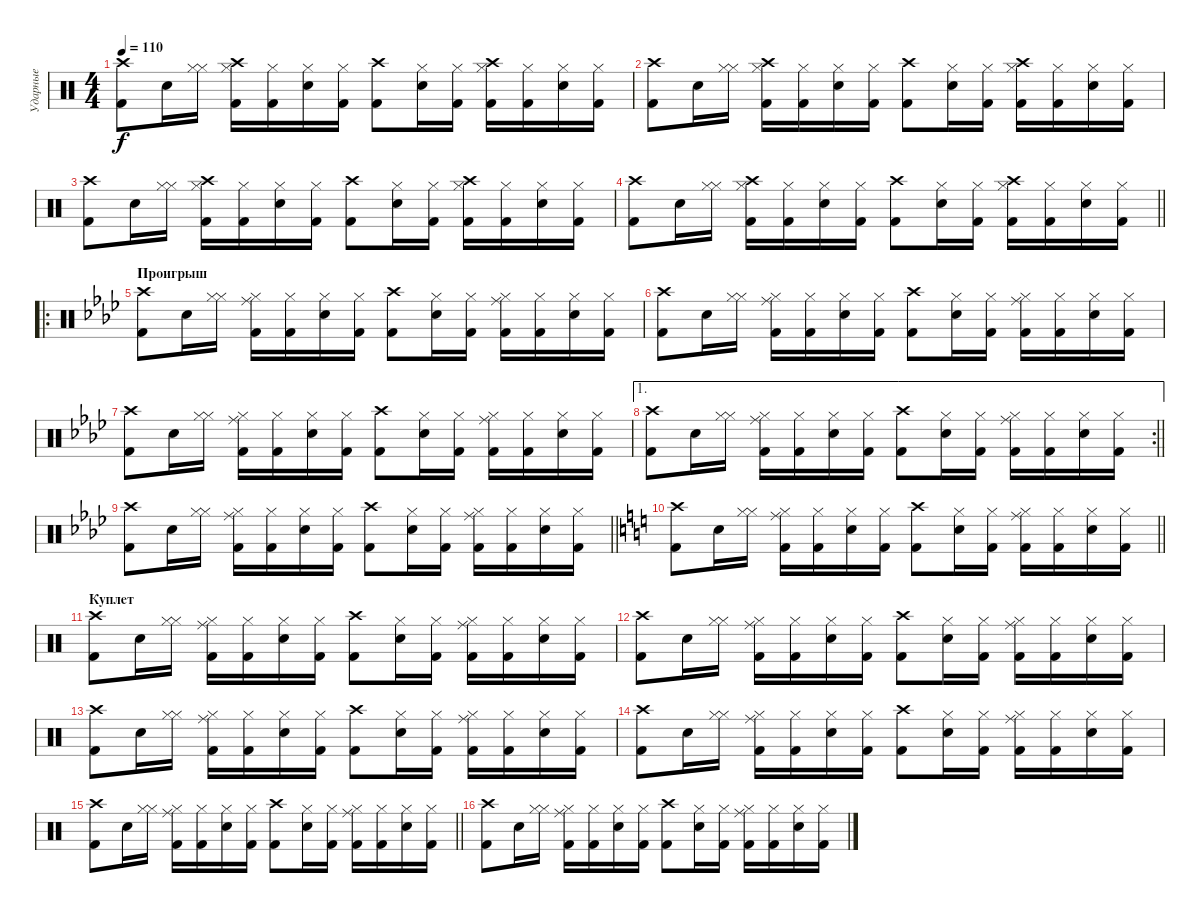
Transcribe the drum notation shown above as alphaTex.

\track ("Ударные" "Ударные") {instrument percussion}
\staff {score}
\articulation defaults
\ts (4 4)
\tempo 110
\clef neutral
\ks c
("Crash high (hit)" "Kick (hit) 2").8{dy f} "Snare (hit) 2".16 ("Hi-Hat (closed)" "Hi-Hat (closed)").16 ("Crash high (hit)" "Hi-Hat (closed)" "Kick (hit) 2").16 ("Hi-Hat (closed)" "Kick (hit) 2").16 ("Hi-Hat (closed)" "Snare (hit) 2").16 ("Hi-Hat (closed)" "Kick (hit) 2").16 ("Crash high (hit)" "Kick (hit) 2").8 ("Hi-Hat (closed)" "Snare (hit) 2").16 ("Hi-Hat (closed)" "Kick (hit) 2").16 ("Crash high (hit)" "Hi-Hat (closed)" "Kick (hit) 2").16 ("Hi-Hat (closed)" "Kick (hit) 2").16 ("Hi-Hat (closed)" "Snare (hit) 2").16 ("Hi-Hat (closed)" "Kick (hit) 2").16 |
("Crash high (hit)" "Kick (hit) 2").8 "Snare (hit) 2".16 ("Hi-Hat (closed)" "Hi-Hat (closed)").16 ("Crash high (hit)" "Hi-Hat (closed)" "Kick (hit) 2").16 ("Hi-Hat (closed)" "Kick (hit) 2").16 ("Hi-Hat (closed)" "Snare (hit) 2").16 ("Hi-Hat (closed)" "Kick (hit) 2").16 ("Crash high (hit)" "Kick (hit) 2").8 ("Hi-Hat (closed)" "Snare (hit) 2").16 ("Hi-Hat (closed)" "Kick (hit) 2").16 ("Crash high (hit)" "Hi-Hat (closed)" "Kick (hit) 2").16 ("Hi-Hat (closed)" "Kick (hit) 2").16 ("Hi-Hat (closed)" "Snare (hit) 2").16 ("Hi-Hat (closed)" "Kick (hit) 2").16 |
("Crash high (hit)" "Kick (hit) 2").8 "Snare (hit) 2".16 ("Hi-Hat (closed)" "Hi-Hat (closed)").16 ("Crash high (hit)" "Hi-Hat (closed)" "Kick (hit) 2").16 ("Hi-Hat (closed)" "Kick (hit) 2").16 ("Hi-Hat (closed)" "Snare (hit) 2").16 ("Hi-Hat (closed)" "Kick (hit) 2").16 ("Crash high (hit)" "Kick (hit) 2").8 ("Hi-Hat (closed)" "Snare (hit) 2").16 ("Hi-Hat (closed)" "Kick (hit) 2").16 ("Crash high (hit)" "Hi-Hat (closed)" "Kick (hit) 2").16 ("Hi-Hat (closed)" "Kick (hit) 2").16 ("Hi-Hat (closed)" "Snare (hit) 2").16 ("Hi-Hat (closed)" "Kick (hit) 2").16 |
\barLineRight lightlight
("Crash high (hit)" "Kick (hit) 2").8 "Snare (hit) 2".16 ("Hi-Hat (closed)" "Hi-Hat (closed)").16 ("Crash high (hit)" "Hi-Hat (closed)" "Kick (hit) 2").16 ("Hi-Hat (closed)" "Kick (hit) 2").16 ("Hi-Hat (closed)" "Snare (hit) 2").16 ("Hi-Hat (closed)" "Kick (hit) 2").16 ("Crash high (hit)" "Kick (hit) 2").8 ("Hi-Hat (closed)" "Snare (hit) 2").16 ("Hi-Hat (closed)" "Kick (hit) 2").16 ("Crash high (hit)" "Hi-Hat (closed)" "Kick (hit) 2").16 ("Hi-Hat (closed)" "Kick (hit) 2").16 ("Hi-Hat (closed)" "Snare (hit) 2").16 ("Hi-Hat (closed)" "Kick (hit) 2").16 |
\ro
\section ("" "Проигрыш")
\ks fminor
("Crash high (hit)" "Kick (hit) 2").8 "Snare (hit) 2".16 ("Hi-Hat (closed)" "Hi-Hat (closed)").16 ("Ride (middle)" "Hi-Hat (closed)" "Kick (hit) 2").16 ("Hi-Hat (closed)" "Kick (hit) 2").16 ("Hi-Hat (closed)" "Snare (hit) 2").16 ("Hi-Hat (closed)" "Kick (hit) 2").16 ("Crash high (hit)" "Kick (hit) 2").8 ("Hi-Hat (closed)" "Snare (hit) 2").16 ("Hi-Hat (closed)" "Kick (hit) 2").16 ("Ride (middle)" "Hi-Hat (closed)" "Kick (hit) 2").16 ("Hi-Hat (closed)" "Kick (hit) 2").16 ("Hi-Hat (closed)" "Snare (hit) 2").16 ("Hi-Hat (closed)" "Kick (hit) 2").16 |
("Crash high (hit)" "Kick (hit) 2").8 "Snare (hit) 2".16 ("Hi-Hat (closed)" "Hi-Hat (closed)").16 ("Ride (middle)" "Hi-Hat (closed)" "Kick (hit) 2").16 ("Hi-Hat (closed)" "Kick (hit) 2").16 ("Hi-Hat (closed)" "Snare (hit) 2").16 ("Hi-Hat (closed)" "Kick (hit) 2").16 ("Crash high (hit)" "Kick (hit) 2").8 ("Hi-Hat (closed)" "Snare (hit) 2").16 ("Hi-Hat (closed)" "Kick (hit) 2").16 ("Ride (middle)" "Hi-Hat (closed)" "Kick (hit) 2").16 ("Hi-Hat (closed)" "Kick (hit) 2").16 ("Hi-Hat (closed)" "Snare (hit) 2").16 ("Hi-Hat (closed)" "Kick (hit) 2").16 |
("Crash high (hit)" "Kick (hit) 2").8 "Snare (hit) 2".16 ("Hi-Hat (closed)" "Hi-Hat (closed)").16 ("Ride (middle)" "Hi-Hat (closed)" "Kick (hit) 2").16 ("Hi-Hat (closed)" "Kick (hit) 2").16 ("Hi-Hat (closed)" "Snare (hit) 2").16 ("Hi-Hat (closed)" "Kick (hit) 2").16 ("Crash high (hit)" "Kick (hit) 2").8 ("Hi-Hat (closed)" "Snare (hit) 2").16 ("Hi-Hat (closed)" "Kick (hit) 2").16 ("Ride (middle)" "Hi-Hat (closed)" "Kick (hit) 2").16 ("Hi-Hat (closed)" "Kick (hit) 2").16 ("Hi-Hat (closed)" "Snare (hit) 2").16 ("Hi-Hat (closed)" "Kick (hit) 2").16 |
\ae 1
\rc 2
\barLineRight lightlight
("Crash high (hit)" "Kick (hit) 2").8 "Snare (hit) 2".16 ("Hi-Hat (closed)" "Hi-Hat (closed)").16 ("Ride (middle)" "Hi-Hat (closed)" "Kick (hit) 2").16 ("Hi-Hat (closed)" "Kick (hit) 2").16 ("Hi-Hat (closed)" "Snare (hit) 2").16 ("Hi-Hat (closed)" "Kick (hit) 2").16 ("Crash high (hit)" "Kick (hit) 2").8 ("Hi-Hat (closed)" "Snare (hit) 2").16 ("Hi-Hat (closed)" "Kick (hit) 2").16 ("Ride (middle)" "Hi-Hat (closed)" "Kick (hit) 2").16 ("Hi-Hat (closed)" "Kick (hit) 2").16 ("Hi-Hat (closed)" "Snare (hit) 2").16 ("Hi-Hat (closed)" "Kick (hit) 2").16 |
\barLineRight lightlight
("Crash high (hit)" "Kick (hit) 2").8 "Snare (hit) 2".16 ("Hi-Hat (closed)" "Hi-Hat (closed)").16 ("Ride (middle)" "Hi-Hat (closed)" "Kick (hit) 2").16 ("Hi-Hat (closed)" "Kick (hit) 2").16 ("Hi-Hat (closed)" "Snare (hit) 2").16 ("Hi-Hat (closed)" "Kick (hit) 2").16 ("Crash high (hit)" "Kick (hit) 2").8 ("Hi-Hat (closed)" "Snare (hit) 2").16 ("Hi-Hat (closed)" "Kick (hit) 2").16 ("Ride (middle)" "Hi-Hat (closed)" "Kick (hit) 2").16 ("Hi-Hat (closed)" "Kick (hit) 2").16 ("Hi-Hat (closed)" "Snare (hit) 2").16 ("Hi-Hat (closed)" "Kick (hit) 2").16 |
\barLineRight lightlight
\ks c
("Crash high (hit)" "Kick (hit) 2").8 "Snare (hit) 2".16 ("Hi-Hat (closed)" "Hi-Hat (closed)").16 ("Ride (middle)" "Hi-Hat (closed)" "Kick (hit) 2").16 ("Hi-Hat (closed)" "Kick (hit) 2").16 ("Hi-Hat (closed)" "Snare (hit) 2").16 ("Hi-Hat (closed)" "Kick (hit) 2").16 ("Crash high (hit)" "Kick (hit) 2").8 ("Hi-Hat (closed)" "Snare (hit) 2").16 ("Hi-Hat (closed)" "Kick (hit) 2").16 ("Ride (middle)" "Hi-Hat (closed)" "Kick (hit) 2").16 ("Hi-Hat (closed)" "Kick (hit) 2").16 ("Hi-Hat (closed)" "Snare (hit) 2").16 ("Hi-Hat (closed)" "Kick (hit) 2").16 |
\section ("" "Куплет")
("Crash high (hit)" "Kick (hit) 2").8 "Snare (hit) 2".16 ("Hi-Hat (closed)" "Hi-Hat (closed)").16 ("Ride (middle)" "Hi-Hat (closed)" "Kick (hit) 2").16 ("Hi-Hat (closed)" "Kick (hit) 2").16 ("Hi-Hat (closed)" "Snare (hit) 2").16 ("Hi-Hat (closed)" "Kick (hit) 2").16 ("Crash high (hit)" "Kick (hit) 2").8 ("Hi-Hat (closed)" "Snare (hit) 2").16 ("Hi-Hat (closed)" "Kick (hit) 2").16 ("Ride (middle)" "Hi-Hat (closed)" "Kick (hit) 2").16 ("Hi-Hat (closed)" "Kick (hit) 2").16 ("Hi-Hat (closed)" "Snare (hit) 2").16 ("Hi-Hat (closed)" "Kick (hit) 2").16 |
("Crash high (hit)" "Kick (hit) 2").8 "Snare (hit) 2".16 ("Hi-Hat (closed)" "Hi-Hat (closed)").16 ("Ride (middle)" "Hi-Hat (closed)" "Kick (hit) 2").16 ("Hi-Hat (closed)" "Kick (hit) 2").16 ("Hi-Hat (closed)" "Snare (hit) 2").16 ("Hi-Hat (closed)" "Kick (hit) 2").16 ("Crash high (hit)" "Kick (hit) 2").8 ("Hi-Hat (closed)" "Snare (hit) 2").16 ("Hi-Hat (closed)" "Kick (hit) 2").16 ("Ride (middle)" "Hi-Hat (closed)" "Kick (hit) 2").16 ("Hi-Hat (closed)" "Kick (hit) 2").16 ("Hi-Hat (closed)" "Snare (hit) 2").16 ("Hi-Hat (closed)" "Kick (hit) 2").16 |
("Crash high (hit)" "Kick (hit) 2").8 "Snare (hit) 2".16 ("Hi-Hat (closed)" "Hi-Hat (closed)").16 ("Ride (middle)" "Hi-Hat (closed)" "Kick (hit) 2").16 ("Hi-Hat (closed)" "Kick (hit) 2").16 ("Hi-Hat (closed)" "Snare (hit) 2").16 ("Hi-Hat (closed)" "Kick (hit) 2").16 ("Crash high (hit)" "Kick (hit) 2").8 ("Hi-Hat (closed)" "Snare (hit) 2").16 ("Hi-Hat (closed)" "Kick (hit) 2").16 ("Ride (middle)" "Hi-Hat (closed)" "Kick (hit) 2").16 ("Hi-Hat (closed)" "Kick (hit) 2").16 ("Hi-Hat (closed)" "Snare (hit) 2").16 ("Hi-Hat (closed)" "Kick (hit) 2").16 |
("Crash high (hit)" "Kick (hit) 2").8 "Snare (hit) 2".16 ("Hi-Hat (closed)" "Hi-Hat (closed)").16 ("Ride (middle)" "Hi-Hat (closed)" "Kick (hit) 2").16 ("Hi-Hat (closed)" "Kick (hit) 2").16 ("Hi-Hat (closed)" "Snare (hit) 2").16 ("Hi-Hat (closed)" "Kick (hit) 2").16 ("Crash high (hit)" "Kick (hit) 2").8 ("Hi-Hat (closed)" "Snare (hit) 2").16 ("Hi-Hat (closed)" "Kick (hit) 2").16 ("Ride (middle)" "Hi-Hat (closed)" "Kick (hit) 2").16 ("Hi-Hat (closed)" "Kick (hit) 2").16 ("Hi-Hat (closed)" "Snare (hit) 2").16 ("Hi-Hat (closed)" "Kick (hit) 2").16 |
\barLineRight lightlight
("Crash high (hit)" "Kick (hit) 2").8 "Snare (hit) 2".16 ("Hi-Hat (closed)" "Hi-Hat (closed)").16 ("Ride (middle)" "Hi-Hat (closed)" "Kick (hit) 2").16 ("Hi-Hat (closed)" "Kick (hit) 2").16 ("Hi-Hat (closed)" "Snare (hit) 2").16 ("Hi-Hat (closed)" "Kick (hit) 2").16 ("Crash high (hit)" "Kick (hit) 2").8 ("Hi-Hat (closed)" "Snare (hit) 2").16 ("Hi-Hat (closed)" "Kick (hit) 2").16 ("Ride (middle)" "Hi-Hat (closed)" "Kick (hit) 2").16 ("Hi-Hat (closed)" "Kick (hit) 2").16 ("Hi-Hat (closed)" "Snare (hit) 2").16 ("Hi-Hat (closed)" "Kick (hit) 2").16 |
("Crash high (hit)" "Kick (hit) 2").8 "Snare (hit) 2".16 ("Hi-Hat (closed)" "Hi-Hat (closed)").16 ("Ride (middle)" "Hi-Hat (closed)" "Kick (hit) 2").16 ("Hi-Hat (closed)" "Kick (hit) 2").16 ("Hi-Hat (closed)" "Snare (hit) 2").16 ("Hi-Hat (closed)" "Kick (hit) 2").16 ("Crash high (hit)" "Kick (hit) 2").8 ("Hi-Hat (closed)" "Snare (hit) 2").16 ("Hi-Hat (closed)" "Kick (hit) 2").16 ("Ride (middle)" "Hi-Hat (closed)" "Kick (hit) 2").16 ("Hi-Hat (closed)" "Kick (hit) 2").16 ("Hi-Hat (closed)" "Snare (hit) 2").16 ("Hi-Hat (closed)" "Kick (hit) 2").16
